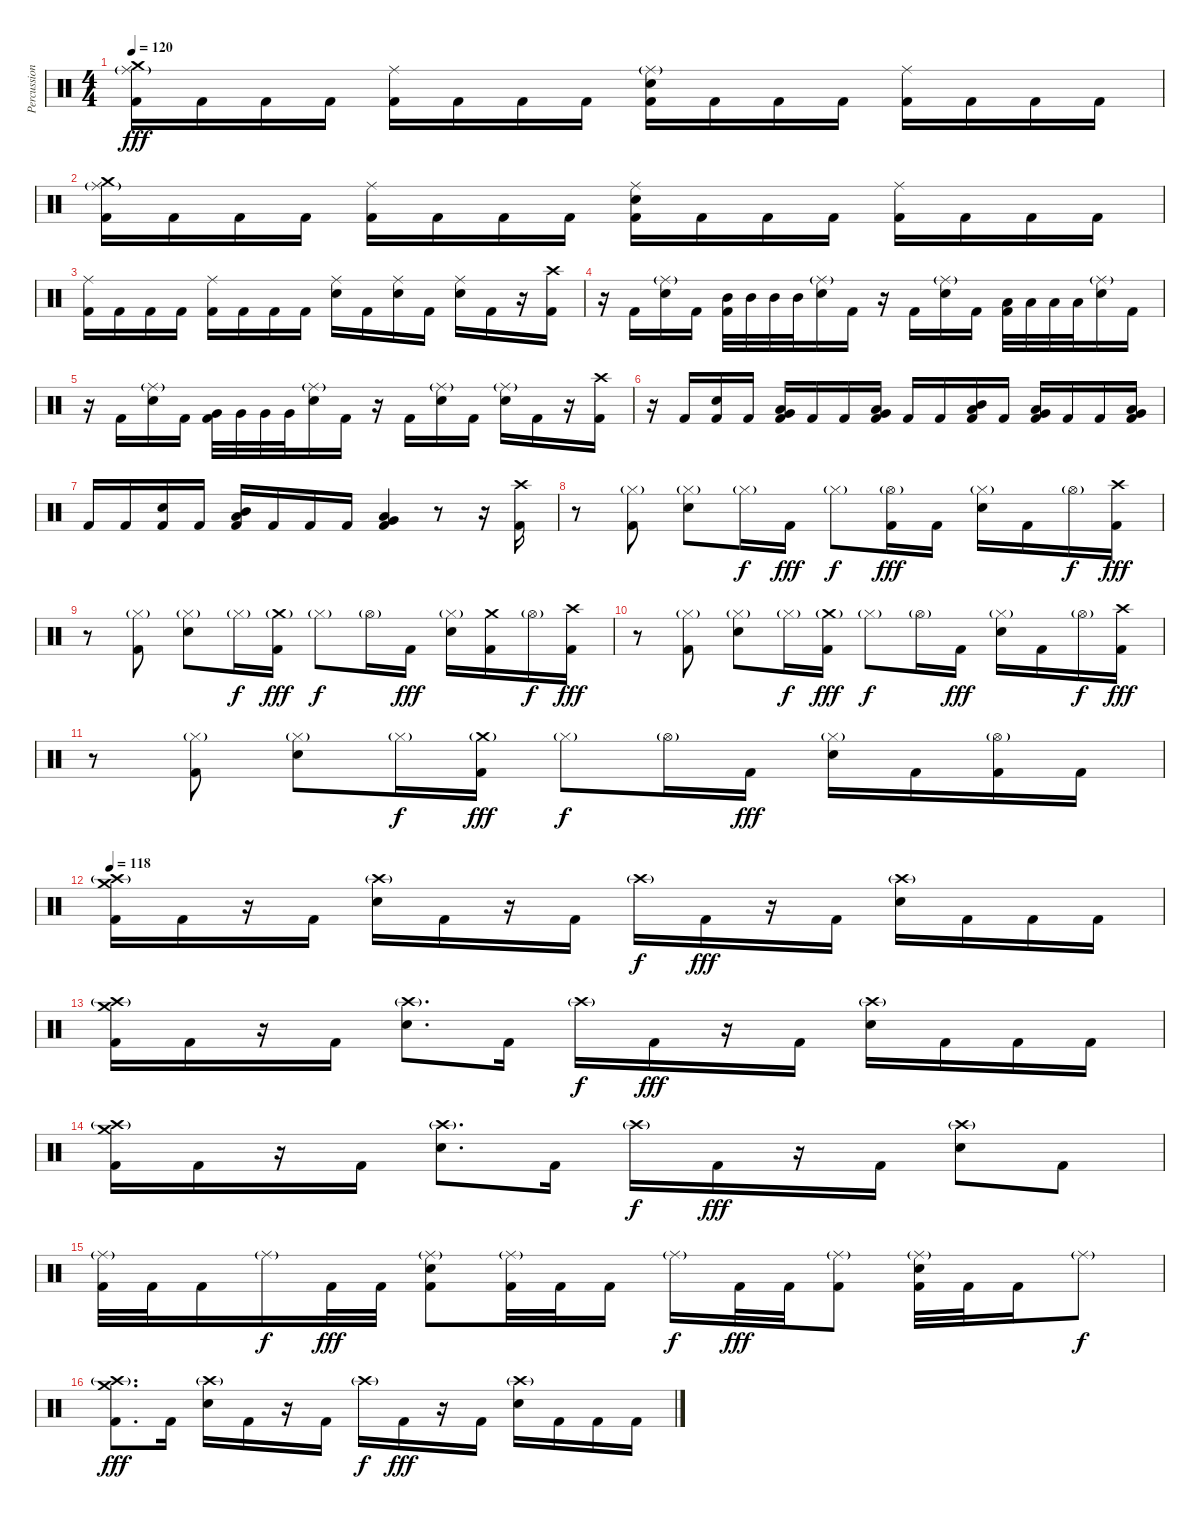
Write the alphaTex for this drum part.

\track ("Percussion" "Percussion") {instrument percussion}
\staff {score}
\articulation defaults
\ts (4 4)
\tempo 120
\clef neutral
\ks c
("Crash medium (hit)" "Ride (middle)"{g} "Kick (hit) 2").16{dy fff} "Kick (hit) 2".16 "Kick (hit) 2".16 "Kick (hit) 2".16 ("Ride (middle)" "Kick (hit) 2").16 "Kick (hit) 2".16 "Kick (hit) 2".16 "Kick (hit) 2".16 ("Ride (middle)"{g} "Electric Snare (hit)" "Kick (hit) 2").16 "Kick (hit) 2".16 "Kick (hit) 2".16 "Kick (hit) 2".16 ("Ride (middle)" "Kick (hit) 2").16 "Kick (hit) 2".16 "Kick (hit) 2".16 "Kick (hit) 2".16 |
("Crash medium (hit)" "Ride (middle)"{g} "Kick (hit) 2").16 "Kick (hit) 2".16 "Kick (hit) 2".16 "Kick (hit) 2".16 ("Ride (middle)" "Kick (hit) 2").16 "Kick (hit) 2".16 "Kick (hit) 2".16 "Kick (hit) 2".16 ("Ride (middle)" "Electric Snare (hit)" "Kick (hit) 2").16 "Kick (hit) 2".16 "Kick (hit) 2".16 "Kick (hit) 2".16 ("Ride (middle)" "Kick (hit) 2").16 "Kick (hit) 2".16 "Kick (hit) 2".16 "Kick (hit) 2".16 |
("Ride (middle)" "Kick (hit) 2").16 "Kick (hit) 2".16 "Kick (hit) 2".16 "Kick (hit) 2".16 ("Ride (middle)" "Kick (hit) 2").16 "Kick (hit) 2".16 "Kick (hit) 2".16 "Kick (hit) 2".16 ("Ride (middle)" "Electric Snare (hit)").16 "Kick (hit) 2".16 ("Ride (middle)" "Electric Snare (hit)").16 "Kick (hit) 2".16 ("Ride (middle)" "Electric Snare (hit)").16 "Kick (hit) 2".16 r.16 ("Crash high (hit)" "Kick (hit) 2").16 |
r.16 "Kick (hit) 2".16 ("Ride (middle)"{g} "Electric Snare (hit)").16 "Kick (hit) 2".16 ("Mid Tom (hit)" "Kick (hit) 2").32 "Mid Tom (hit)".32 "Mid Tom (hit)".32 "Mid Tom (hit)".32 ("Ride (middle)"{g} "Electric Snare (hit)").16 "Kick (hit) 2".16 r.16 "Kick (hit) 2".16 ("Ride (middle)"{g} "Electric Snare (hit)").16 "Kick (hit) 2".16 ("Low Tom (hit)" "Kick (hit) 2").32 "Low Tom (hit)".32 "Low Tom (hit)".32 "Low Tom (hit)".32 ("Ride (middle)"{g} "Electric Snare (hit)").16 "Kick (hit) 2".16 |
r.16 "Kick (hit) 2".16 ("Ride (middle)"{g} "Electric Snare (hit)").16 "Kick (hit) 2".16 ("Very Low Tom (hit)" "Kick (hit) 2").32 "Very Low Tom (hit)".32 "Very Low Tom (hit)".32 "Very Low Tom (hit)".32 ("Ride (middle)"{g} "Electric Snare (hit)").16 "Kick (hit) 2".16 r.16 "Kick (hit) 2".16 ("Ride (middle)"{g} "Electric Snare (hit)").16 "Kick (hit) 2".16 ("Ride (middle)"{g} "Electric Snare (hit)").16 "Kick (hit) 2".16 r.16 ("Crash high (hit)" "Kick (hit) 2").16 |
r.16 "Kick (hit) 2".16 ("Electric Snare (hit)" "Kick (hit) 2").16 "Kick (hit) 2".16 ("Low Tom (hit)" "Very Low Tom (hit)" "Kick (hit) 2").16 "Kick (hit) 2".16 "Kick (hit) 2".16 ("Very Low Tom (hit)" "Low Floor Tom (hit)" "Kick (hit) 2").16 "Kick (hit) 2".16 "Kick (hit) 2".16 ("Mid Tom (hit)" "Low Tom (hit)" "Kick (hit) 2").16 "Kick (hit) 2".16 ("Low Tom (hit)" "Very Low Tom (hit)" "Kick (hit) 2").16 "Kick (hit) 2".16 "Kick (hit) 2".16 ("Very Low Tom (hit)" "Low Floor Tom (hit)" "Kick (hit) 2").16 |
"Kick (hit) 2".16 "Kick (hit) 2".16 ("Electric Snare (hit)" "Kick (hit) 2").16 "Kick (hit) 2".16 ("Mid Tom (hit)" "Low Tom (hit)" "Kick (hit) 2").16 "Kick (hit) 2".16 "Kick (hit) 2".16 "Kick (hit) 2".16 ("Very Low Tom (hit)" "Low Floor Tom (hit)" "Kick (hit) 2").4 r.8 r.16 ("Crash high (hit)" "Kick (hit) 2").16 |
r.8 ("Hi-Hat (closed)"{g} "Kick (hit) 2").8 ("Hi-Hat (closed)"{g} "Electric Snare (hit)").8 "Hi-Hat (closed)"{g}.16{dy f} "Kick (hit) 2".16{dy fff} "Hi-Hat (closed)"{g}.8{dy f} ("Hi-Hat (open)"{g} "Kick (hit) 2").16{dy fff} "Kick (hit) 2".16 ("Hi-Hat (closed)"{g} "Electric Snare (hit)").16 "Kick (hit) 2".16 "Hi-Hat (open)"{g}.16{dy f} ("Crash high (hit)" "Kick (hit) 2").16{dy fff} |
r.8 ("Hi-Hat (closed)"{g} "Kick (hit) 2").8 ("Hi-Hat (closed)"{g} "Electric Snare (hit)").8 "Hi-Hat (closed)"{g}.16{dy f} ("Crash medium (hit)"{g} "Kick (hit) 2").16{dy fff} "Hi-Hat (closed)"{g}.8{dy f} "Hi-Hat (open)"{g}.16 "Kick (hit) 2".16{dy fff} ("Hi-Hat (closed)"{g} "Electric Snare (hit)").16 ("Crash medium (hit)" "Kick (hit) 2").16 "Hi-Hat (open)"{g}.16{dy f} ("Crash high (hit)" "Kick (hit) 2").16{dy fff} |
r.8 ("Hi-Hat (closed)"{g} "Kick (hit) 2").8 ("Hi-Hat (closed)"{g} "Electric Snare (hit)").8 "Hi-Hat (closed)"{g}.16{dy f} ("Crash medium (hit)"{g} "Kick (hit) 2").16{dy fff} "Hi-Hat (closed)"{g}.8{dy f} "Hi-Hat (open)"{g}.16 "Kick (hit) 2".16{dy fff} ("Hi-Hat (closed)"{g} "Electric Snare (hit)").16 "Kick (hit) 2".16 "Hi-Hat (open)"{g}.16{dy f} ("Crash high (hit)" "Kick (hit) 2").16{dy fff} |
r.8 ("Hi-Hat (closed)"{g} "Kick (hit) 2").8 ("Hi-Hat (closed)"{g} "Electric Snare (hit)").8 "Hi-Hat (closed)"{g}.16{dy f} ("Crash medium (hit)"{g} "Kick (hit) 2").16{dy fff} "Hi-Hat (closed)"{g}.8{dy f} "Hi-Hat (open)"{g}.16 "Kick (hit) 2".16{dy fff} ("Hi-Hat (closed)"{g} "Electric Snare (hit)").16 "Kick (hit) 2".16 ("Hi-Hat (open)"{g} "Kick (hit) 2").16 "Kick (hit) 2".16 |
\tempo 118
("Crash high (hit)"{g} "Crash medium (hit)" "Kick (hit) 2").16 "Kick (hit) 2".16 r.16 "Kick (hit) 2".16 ("Crash high (hit)"{g} "Electric Snare (hit)").16 "Kick (hit) 2".16 r.16 "Kick (hit) 2".16 "Crash high (hit)"{g}.16{dy f} "Kick (hit) 2".16{dy fff} r.16 "Kick (hit) 2".16 ("Crash high (hit)"{g} "Electric Snare (hit)").16 "Kick (hit) 2".16 "Kick (hit) 2".16 "Kick (hit) 2".16 |
("Crash high (hit)"{g} "Crash medium (hit)" "Kick (hit) 2").16 "Kick (hit) 2".16 r.16 "Kick (hit) 2".16 ("Crash high (hit)"{g} "Electric Snare (hit)").8{d} "Kick (hit) 2".16 "Crash high (hit)"{g}.16{dy f} "Kick (hit) 2".16{dy fff} r.16 "Kick (hit) 2".16 ("Crash high (hit)"{g} "Electric Snare (hit)").16 "Kick (hit) 2".16 "Kick (hit) 2".16 "Kick (hit) 2".16 |
("Crash high (hit)"{g} "Crash medium (hit)" "Kick (hit) 2").16 "Kick (hit) 2".16 r.16 "Kick (hit) 2".16 ("Crash high (hit)"{g} "Electric Snare (hit)").8{d} "Kick (hit) 2".16 "Crash high (hit)"{g}.16{dy f} "Kick (hit) 2".16{dy fff} r.16 "Kick (hit) 2".16 ("Crash high (hit)"{g} "Electric Snare (hit)").8 "Kick (hit) 2".8 |
("Ride (middle)"{g} "Kick (hit) 2").32 "Kick (hit) 2".32 "Kick (hit) 2".16 "Ride (middle)"{g}.16{dy f} "Kick (hit) 2".32{dy fff} "Kick (hit) 2".32 ("Ride (middle)"{g} "Electric Snare (hit)" "Kick (hit) 2").8 ("Ride (middle)"{g} "Kick (hit) 2").32 "Kick (hit) 2".32 "Kick (hit) 2".16 "Ride (middle)"{g}.16{dy f} "Kick (hit) 2".32{dy fff} "Kick (hit) 2".32 ("Ride (middle)"{g} "Kick (hit) 2").8 ("Ride (middle)"{g} "Electric Snare (hit)" "Kick (hit) 2").32 "Kick (hit) 2".32 "Kick (hit) 2".16 "Ride (middle)"{g}.8{dy f} |
("Crash high (hit)"{g} "Crash medium (hit)" "Kick (hit) 2").8{d dy fff} "Kick (hit) 2".16 ("Crash high (hit)"{g} "Electric Snare (hit)").16 "Kick (hit) 2".16 r.16 "Kick (hit) 2".16 "Crash high (hit)"{g}.16{dy f} "Kick (hit) 2".16{dy fff} r.16 "Kick (hit) 2".16 ("Crash high (hit)"{g} "Electric Snare (hit)").16 "Kick (hit) 2".16 "Kick (hit) 2".16 "Kick (hit) 2".16
